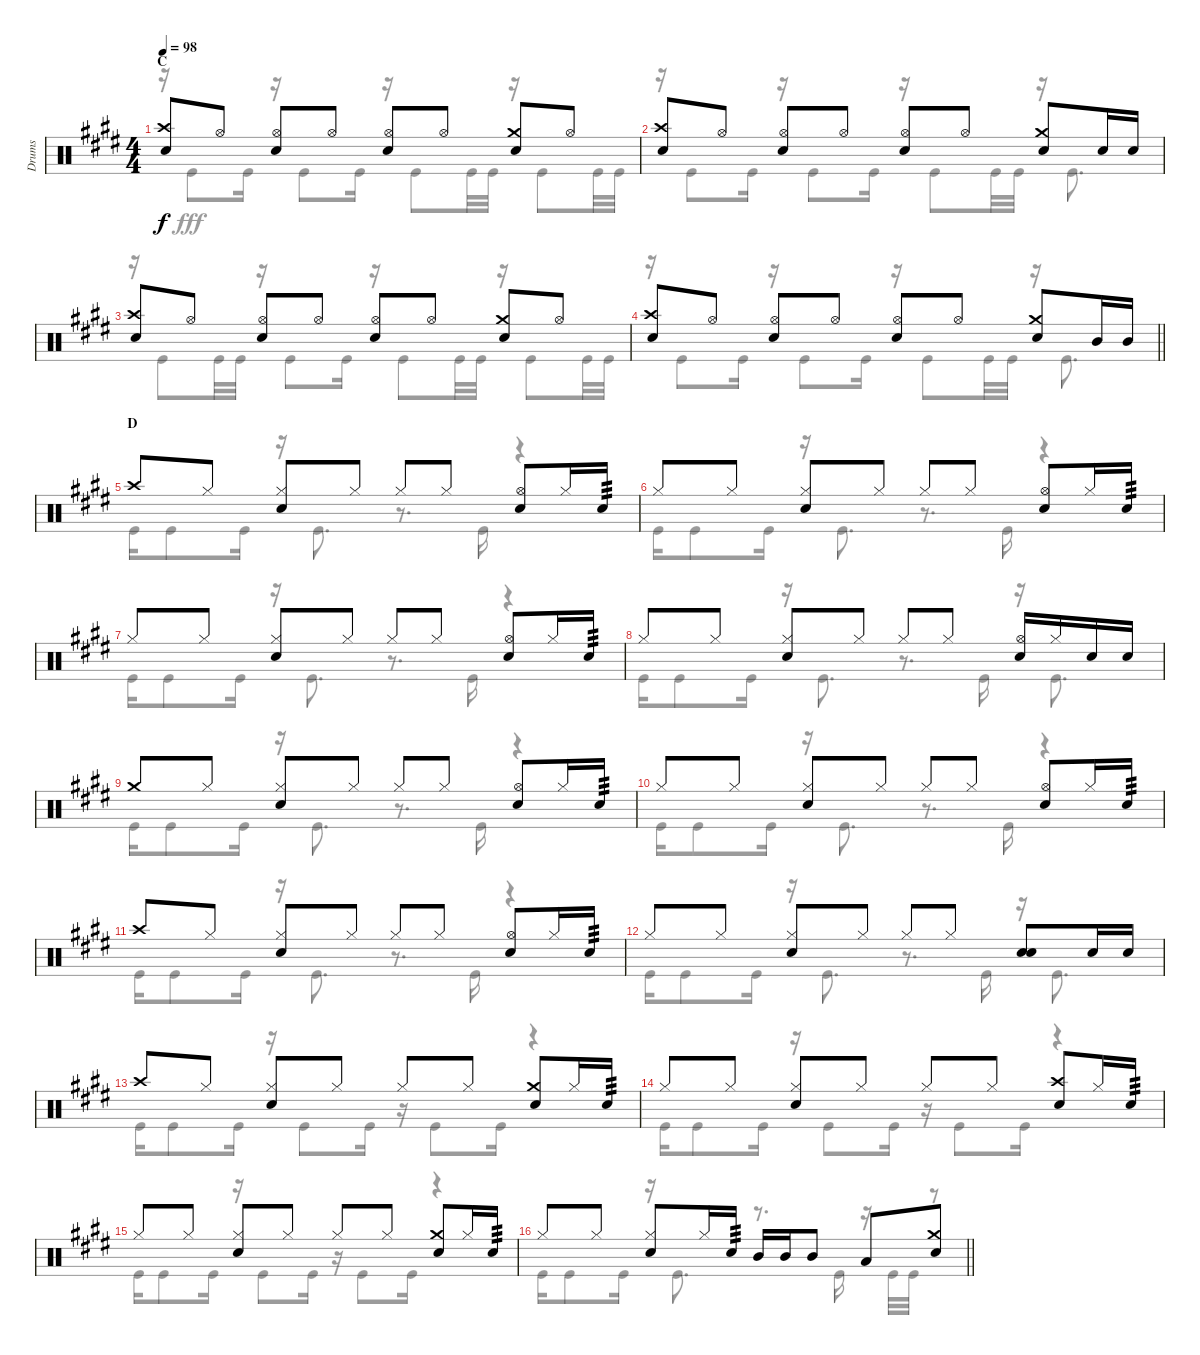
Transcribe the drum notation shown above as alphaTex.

\track ("Drums" "Drums") {instrument percussion}
\staff {score}
\articulation defaults
\voice
\ts (4 4)
\section ("" "C")
\tempo 98
\clef neutral
\ks e
("Crash high (hit)" "Snare (hit) 2").8{dy f} "Hi-Hat (open)".8 ("Hi-Hat (open)" "Snare (hit) 2").8 "Hi-Hat (open)".8 ("Hi-Hat (open)" "Snare (hit) 2").8 "Hi-Hat (open)".8 ("Crash medium (hit)" "Snare (hit) 2").8 "Hi-Hat (open)".8 |
("Crash high (hit)" "Snare (hit) 2").8 "Hi-Hat (open)".8 ("Hi-Hat (open)" "Snare (hit) 2").8 "Hi-Hat (open)".8 ("Hi-Hat (open)" "Snare (hit) 2").8 "Hi-Hat (open)".8 ("Crash medium (hit)" "Snare (hit) 2").8 "Snare (hit) 2".16 "Snare (hit) 2".16 |
("Crash high (hit)" "Snare (hit) 2").8 "Hi-Hat (open)".8 ("Hi-Hat (open)" "Snare (hit) 2").8 "Hi-Hat (open)".8 ("Hi-Hat (open)" "Snare (hit) 2").8 "Hi-Hat (open)".8 ("Crash medium (hit)" "Snare (hit) 2").8 "Hi-Hat (open)".8 |
\barLineRight lightlight
("Crash high (hit)" "Snare (hit) 2").8 "Hi-Hat (open)".8 ("Hi-Hat (open)" "Snare (hit) 2").8 "Hi-Hat (open)".8 ("Hi-Hat (open)" "Snare (hit) 2").8 "Hi-Hat (open)".8 ("Crash medium (hit)" "Snare (hit) 2").8 "Mid Tom (hit)".16 "Mid Tom (hit)".16 |
\section ("" "D")
"Crash high (hit)".8 "Hi-Hat (closed)".8 ("Hi-Hat (closed)" "Snare (hit) 2").8 "Hi-Hat (closed)".8 "Hi-Hat (closed)".8 "Hi-Hat (closed)".8 ("Hi-Hat (open)" "Snare (hit) 2").8 "Hi-Hat (closed)".16 "Snare (hit) 2".16{tp 3} |
"Hi-Hat (closed)".8 "Hi-Hat (closed)".8 ("Hi-Hat (closed)" "Snare (hit) 2").8 "Hi-Hat (closed)".8 "Hi-Hat (closed)".8 "Hi-Hat (closed)".8 ("Hi-Hat (open)" "Snare (hit) 2").8 "Hi-Hat (closed)".16 "Snare (hit) 2".16{tp 3} |
"Hi-Hat (closed)".8 "Hi-Hat (closed)".8 ("Hi-Hat (closed)" "Snare (hit) 2").8 "Hi-Hat (closed)".8 "Hi-Hat (closed)".8 "Hi-Hat (closed)".8 ("Hi-Hat (open)" "Snare (hit) 2").8 "Hi-Hat (closed)".16 "Snare (hit) 2".16{tp 3} |
"Hi-Hat (closed)".8 "Hi-Hat (closed)".8 ("Hi-Hat (closed)" "Snare (hit) 2").8 "Hi-Hat (closed)".8 "Hi-Hat (closed)".8 "Hi-Hat (closed)".8 ("Hi-Hat (open)" "Snare (hit) 2").16 "Hi-Hat (closed)".16 "Snare (hit) 2".16 "Snare (hit) 2".16 |
"Crash medium (hit)".8 "Hi-Hat (closed)".8 ("Hi-Hat (closed)" "Snare (hit) 2").8 "Hi-Hat (closed)".8 "Hi-Hat (closed)".8 "Hi-Hat (closed)".8 ("Hi-Hat (open)" "Snare (hit) 2").8 "Hi-Hat (closed)".16 "Snare (hit) 2".16{tp 3} |
"Hi-Hat (closed)".8 "Hi-Hat (closed)".8 ("Hi-Hat (closed)" "Snare (hit) 2").8 "Hi-Hat (closed)".8 "Hi-Hat (closed)".8 "Hi-Hat (closed)".8 ("Hi-Hat (open)" "Snare (hit) 2").8 "Hi-Hat (closed)".16 "Snare (hit) 2".16{tp 3} |
"Crash high (hit)".8 "Hi-Hat (closed)".8 ("Hi-Hat (closed)" "Snare (hit) 2").8 "Hi-Hat (closed)".8 "Hi-Hat (closed)".8 "Hi-Hat (closed)".8 ("Hi-Hat (open)" "Snare (hit) 2").8 "Hi-Hat (closed)".16 "Snare (hit) 2".16{tp 3} |
"Hi-Hat (closed)".8 "Hi-Hat (closed)".8 ("Hi-Hat (closed)" "Snare (hit) 2").8 "Hi-Hat (closed)".8 "Hi-Hat (closed)".8 "Hi-Hat (closed)".8 ("Snare (hit) 2" "Snare (hit) 2").8 "Snare (hit) 2".16 "Snare (hit) 2".16 |
"Crash high (hit)".8 "Hi-Hat (closed)".8 ("Hi-Hat (closed)" "Snare (hit) 2").8 "Hi-Hat (closed)".8 "Hi-Hat (closed)".8 "Hi-Hat (closed)".8 ("Crash medium (hit)" "Snare (hit) 2").8 "Hi-Hat (closed)".16 "Snare (hit) 2".16{tp 3} |
"Hi-Hat (closed)".8 "Hi-Hat (closed)".8 ("Hi-Hat (closed)" "Snare (hit) 2").8 "Hi-Hat (closed)".8 "Hi-Hat (closed)".8 "Hi-Hat (closed)".8 ("Crash high (hit)" "Snare (hit) 2").8 "Hi-Hat (closed)".16 "Snare (hit) 2".16{tp 3} |
"Hi-Hat (closed)".8 "Hi-Hat (closed)".8 ("Hi-Hat (closed)" "Snare (hit) 2").8 "Hi-Hat (closed)".8 "Hi-Hat (closed)".8 "Hi-Hat (closed)".8 ("Crash medium (hit)" "Snare (hit) 2").8 "Hi-Hat (closed)".16 "Snare (hit) 2".16{tp 3} |
\barLineRight lightlight "Hi-Hat (closed)".8 "Hi-Hat (closed)".8
("Hi-Hat (closed)" "Snare (hit) 2").8 "Hi-Hat (closed)".16 "Snare (hit) 2".16{tp 3} "Mid Tom (hit)".16 "Mid Tom (hit)".16 "Mid Tom (hit)".8 "Low Tom (hit)".8 ("Crash medium (hit)" "Snare (hit) 2").8
\voice
\clef neutral
\ottava regular
\simile none
\ks e
r.16{dy fff} "Kick (hit)".8 "Kick (hit)".16 r.16 "Kick (hit)".8 "Kick (hit)".16 r.16 "Kick (hit)".8 "Kick (hit)".32 "Kick (hit)".32 r.16 "Kick (hit)".8 "Kick (hit)".32 "Kick (hit)".32 |
r.16 "Kick (hit)".8 "Kick (hit)".16 r.16 "Kick (hit)".8 "Kick (hit)".16 r.16 "Kick (hit)".8 "Kick (hit)".32 "Kick (hit)".32 r.16 "Kick (hit)".8{d} |
r.16 "Kick (hit)".8 "Kick (hit)".32 "Kick (hit)".32 r.16 "Kick (hit)".8 "Kick (hit)".16 r.16 "Kick (hit)".8 "Kick (hit)".32 "Kick (hit)".32 r.16 "Kick (hit)".8 "Kick (hit)".32 "Kick (hit)".32 |
\barLineRight lightlight
r.16 "Kick (hit)".8 "Kick (hit)".16 r.16 "Kick (hit)".8 "Kick (hit)".16 r.16 "Kick (hit)".8 "Kick (hit)".32 "Kick (hit)".32 r.16 "Kick (hit)".8{d} |
"Kick (hit)".16 "Kick (hit)".8 "Kick (hit)".16 r.16 "Kick (hit)".8{d} r.8{d} "Kick (hit)".16 r.4 |
"Kick (hit)".16 "Kick (hit)".8 "Kick (hit)".16 r.16 "Kick (hit)".8{d} r.8{d} "Kick (hit)".16 r.4 |
"Kick (hit)".16 "Kick (hit)".8 "Kick (hit)".16 r.16 "Kick (hit)".8{d} r.8{d} "Kick (hit)".16 r.4 |
"Kick (hit)".16 "Kick (hit)".8 "Kick (hit)".16 r.16 "Kick (hit)".8{d} r.8{d} "Kick (hit)".16 r.16 "Kick (hit)".8{d} |
"Kick (hit)".16 "Kick (hit)".8 "Kick (hit)".16 r.16 "Kick (hit)".8{d} r.8{d} "Kick (hit)".16 r.4 |
"Kick (hit)".16 "Kick (hit)".8 "Kick (hit)".16 r.16 "Kick (hit)".8{d} r.8{d} "Kick (hit)".16 r.4 |
"Kick (hit)".16 "Kick (hit)".8 "Kick (hit)".16 r.16 "Kick (hit)".8{d} r.8{d} "Kick (hit)".16 r.4 |
"Kick (hit)".16 "Kick (hit)".8 "Kick (hit)".16 r.16 "Kick (hit)".8{d} r.8{d} "Kick (hit)".16 r.16 "Kick (hit)".8{d} |
"Kick (hit)".16 "Kick (hit)".8 "Kick (hit)".16 r.16 "Kick (hit)".8 "Kick (hit)".16 r.16 "Kick (hit)".8 "Kick (hit)".16 r.4 |
"Kick (hit)".16 "Kick (hit)".8 "Kick (hit)".16 r.16 "Kick (hit)".8 "Kick (hit)".16 r.16 "Kick (hit)".8 "Kick (hit)".16 r.4 |
"Kick (hit)".16 "Kick (hit)".8 "Kick (hit)".16 r.16 "Kick (hit)".8 "Kick (hit)".16 r.16 "Kick (hit)".8 "Kick (hit)".16 r.4 |
\barLineRight lightlight "Kick (hit)".16 "Kick (hit)".8 "Kick (hit)".16
r.16 "Kick (hit)".8{d} r.8{d} "Kick (hit)".16 r.16 "Kick (hit)".32 "Kick (hit)".32 r.8
